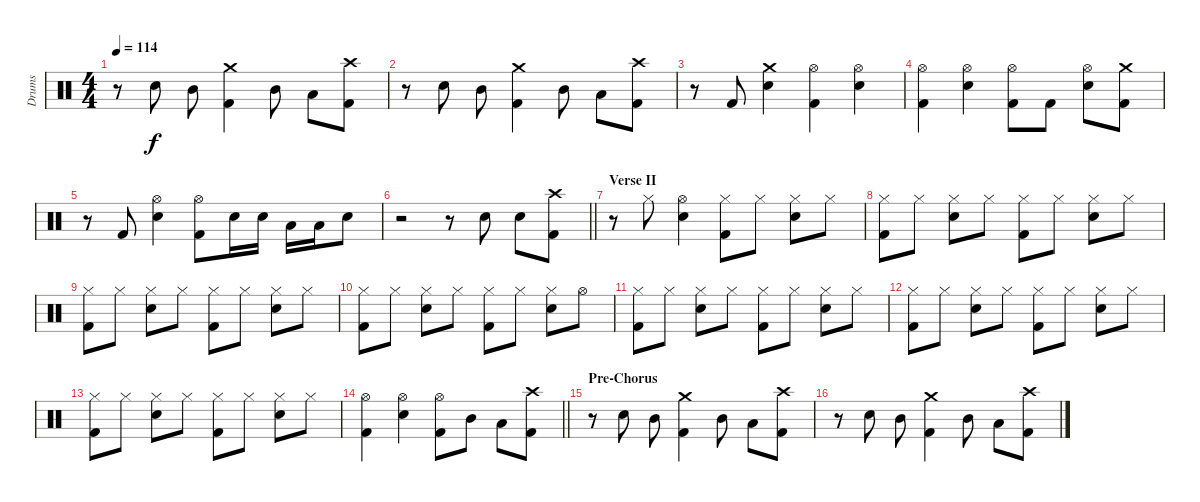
\track ("Drums" "Drums") {instrument percussion}
\staff {score}
\articulation defaults
\ts (4 4)
\tempo 114
\clef neutral
\ks c
r.8{dy f} "Snare (hit) 2".8 "Mid Tom (hit)".8 ("Crash medium (hit)" "Kick (hit) 2").4 "Mid Tom (hit)".8 "Low Tom (hit)".8 ("Crash high (hit)" "Kick (hit) 2").8 |
r.8 "Snare (hit) 2".8 "Mid Tom (hit)".8 ("Crash medium (hit)" "Kick (hit) 2").4 "Mid Tom (hit)".8 "Low Tom (hit)".8 ("Crash high (hit)" "Kick (hit) 2").8 |
r.8 "Kick (hit) 2".8 ("Crash medium (hit)" "Snare (hit) 2").4 ("Hi-Hat (open)" "Kick (hit) 2").4 ("Hi-Hat (open)" "Snare (hit) 2").4 |
("Hi-Hat (open)" "Kick (hit) 2").4 ("Hi-Hat (open)" "Snare (hit) 2").4 ("Hi-Hat (open)" "Kick (hit) 2").8 "Kick (hit) 2".8 ("Hi-Hat (open)" "Snare (hit) 2").8 ("Crash medium (hit)" "Kick (hit) 2").8 |
r.8 "Kick (hit) 2".8 ("Hi-Hat (open)" "Snare (hit) 2").4 ("Hi-Hat (open)" "Kick (hit) 2").8 "Snare (hit) 2".16 "Snare (hit) 2".16 "Low Tom (hit)".16 "Low Tom (hit)".16 "Snare (hit) 2".8 |
\barLineRight lightlight
r.2 r.8 "Snare (hit) 2".8 "Snare (hit) 2".8 ("Crash high (hit)" "Kick (hit) 2").8 |
\section ("" "Verse II")
r.8 "Hi-Hat (closed)".8 ("Hi-Hat (open)" "Snare (hit) 2").4 ("Hi-Hat (closed)" "Kick (hit) 2").8 "Hi-Hat (closed)".8 ("Hi-Hat (closed)" "Snare (hit) 2").8 "Hi-Hat (closed)".8 |
("Hi-Hat (closed)" "Kick (hit) 2").8 "Hi-Hat (closed)".8 ("Hi-Hat (closed)" "Snare (hit) 2").8 "Hi-Hat (closed)".8 ("Hi-Hat (closed)" "Kick (hit) 2").8 "Hi-Hat (closed)".8 ("Hi-Hat (closed)" "Snare (hit) 2").8 "Hi-Hat (closed)".8 |
("Hi-Hat (closed)" "Kick (hit) 2").8 "Hi-Hat (closed)".8 ("Hi-Hat (closed)" "Snare (hit) 2").8 "Hi-Hat (closed)".8 ("Hi-Hat (closed)" "Kick (hit) 2").8 "Hi-Hat (closed)".8 ("Hi-Hat (closed)" "Snare (hit) 2").8 "Hi-Hat (closed)".8 |
("Hi-Hat (closed)" "Kick (hit) 2").8 "Hi-Hat (closed)".8 ("Hi-Hat (closed)" "Snare (hit) 2").8 "Hi-Hat (closed)".8 ("Hi-Hat (closed)" "Kick (hit) 2").8 "Hi-Hat (closed)".8 ("Hi-Hat (closed)" "Snare (hit) 2").8 "Hi-Hat (open)".8 |
("Hi-Hat (closed)" "Kick (hit) 2").8 "Hi-Hat (closed)".8 ("Hi-Hat (closed)" "Snare (hit) 2").8 "Hi-Hat (closed)".8 ("Hi-Hat (closed)" "Kick (hit) 2").8 "Hi-Hat (closed)".8 ("Hi-Hat (closed)" "Snare (hit) 2").8 "Hi-Hat (closed)".8 |
("Hi-Hat (closed)" "Kick (hit) 2").8 "Hi-Hat (closed)".8 ("Hi-Hat (closed)" "Snare (hit) 2").8 "Hi-Hat (closed)".8 ("Hi-Hat (closed)" "Kick (hit) 2").8 "Hi-Hat (closed)".8 ("Hi-Hat (closed)" "Snare (hit) 2").8 "Hi-Hat (closed)".8 |
("Hi-Hat (closed)" "Kick (hit) 2").8 "Hi-Hat (closed)".8 ("Hi-Hat (closed)" "Snare (hit) 2").8 "Hi-Hat (closed)".8 ("Hi-Hat (closed)" "Kick (hit) 2").8 "Hi-Hat (closed)".8 ("Hi-Hat (closed)" "Snare (hit) 2").8 "Hi-Hat (closed)".8 |
\barLineRight lightlight
("Hi-Hat (open)" "Kick (hit) 2").4 ("Hi-Hat (open)" "Snare (hit) 2").4 ("Hi-Hat (open)" "Kick (hit) 2").8 "Mid Tom (hit)".8 "Low Tom (hit)".8 ("Crash high (hit)" "Kick (hit) 2").8 |
\section ("" "Pre-Chorus")
r.8 "Snare (hit) 2".8 "Mid Tom (hit)".8 ("Crash medium (hit)" "Kick (hit) 2").4 "Mid Tom (hit)".8 "Low Tom (hit)".8 ("Crash high (hit)" "Kick (hit) 2").8 |
r.8 "Snare (hit) 2".8 "Mid Tom (hit)".8 ("Crash medium (hit)" "Kick (hit) 2").4 "Mid Tom (hit)".8 "Low Tom (hit)".8 ("Crash high (hit)" "Kick (hit) 2").8
